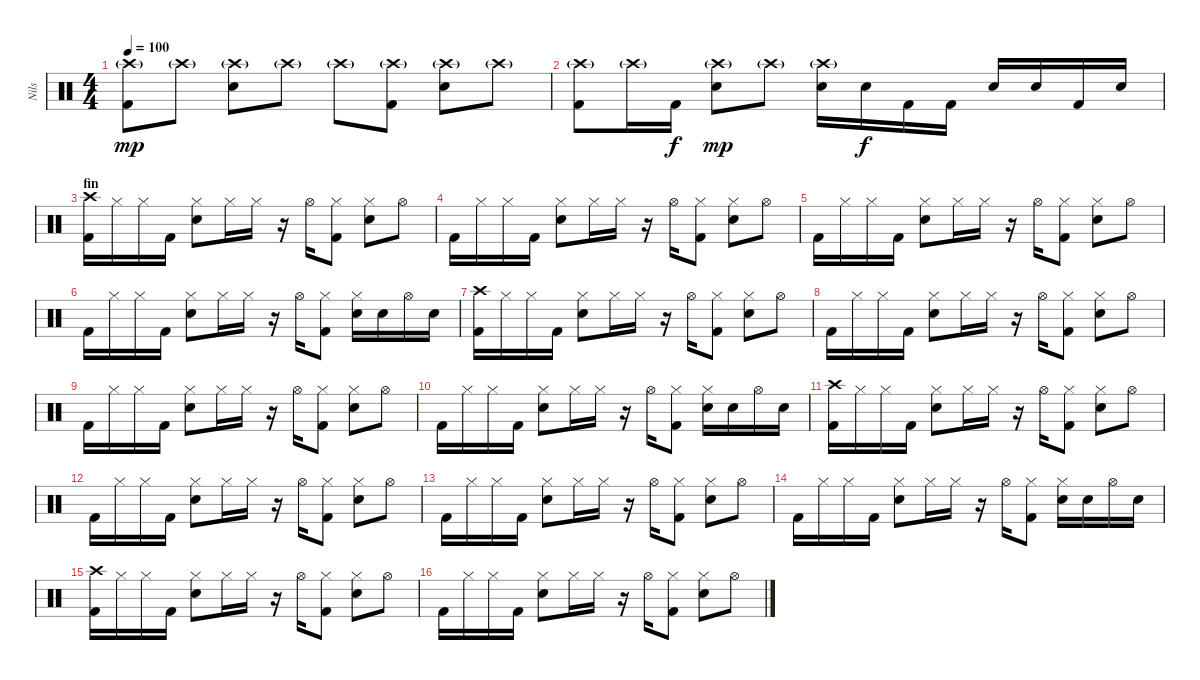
\track ("Nils" "Nils") {instrument percussion}
\staff {score}
\articulation defaults
\ts (4 4)
\tempo 100
\clef neutral
\ks c
("Crash high (hit)"{g} "Kick (hit) 2").8{dy mp} "Crash high (hit)"{g}.8 ("Crash high (hit)"{g} "Snare (hit) 2").8 "Crash high (hit)"{g}.8 "Crash high (hit)"{g}.8 ("Crash high (hit)"{g} "Kick (hit) 2").8 ("Crash high (hit)"{g} "Snare (hit) 2").8 "Crash high (hit)"{g}.8 |
("Crash high (hit)"{g} "Kick (hit) 2").8 "Crash high (hit)"{g}.16 "Kick (hit) 2".16{dy f} ("Crash high (hit)"{g} "Snare (hit) 2").8{dy mp} "Crash high (hit)"{g}.8 ("Crash high (hit)"{g} "Snare (hit) 2").16 "Snare (hit) 2".16{dy f} "Kick (hit) 2".16 "Kick (hit) 2".16 "Snare (hit) 2".16 "Snare (hit) 2".16 "Kick (hit) 2".16 "Snare (hit) 2".16 |
\section ("" "fin")
("Crash high (hit)" "Kick (hit) 2").16 "Hi-Hat (closed)".16 "Hi-Hat (closed)".16 "Kick (hit) 2".16 ("Hi-Hat (closed)" "Snare (hit) 2").8 "Hi-Hat (closed)".16 "Hi-Hat (closed)".16 r.16 "Hi-Hat (open)".16 ("Hi-Hat (closed)" "Kick (hit) 2").8 ("Hi-Hat (closed)" "Snare (hit) 2").8 "Hi-Hat (open)".8 |
"Kick (hit) 2".16 "Hi-Hat (closed)".16 "Hi-Hat (closed)".16 "Kick (hit) 2".16 ("Hi-Hat (closed)" "Snare (hit) 2").8 "Hi-Hat (closed)".16 "Hi-Hat (closed)".16 r.16 "Hi-Hat (open)".16 ("Hi-Hat (closed)" "Kick (hit) 2").8 ("Hi-Hat (closed)" "Snare (hit) 2").8 "Hi-Hat (open)".8 |
"Kick (hit) 2".16 "Hi-Hat (closed)".16 "Hi-Hat (closed)".16 "Kick (hit) 2".16 ("Hi-Hat (closed)" "Snare (hit) 2").8 "Hi-Hat (closed)".16 "Hi-Hat (closed)".16 r.16 "Hi-Hat (open)".16 ("Hi-Hat (closed)" "Kick (hit) 2").8 ("Hi-Hat (closed)" "Snare (hit) 2").8 "Hi-Hat (open)".8 |
"Kick (hit) 2".16 "Hi-Hat (closed)".16 "Hi-Hat (closed)".16 "Kick (hit) 2".16 ("Hi-Hat (closed)" "Snare (hit) 2").8 "Hi-Hat (closed)".16 "Hi-Hat (closed)".16 r.16 "Hi-Hat (open)".16 ("Hi-Hat (closed)" "Kick (hit) 2").8 ("Hi-Hat (closed)" "Snare (hit) 2").16 "Snare (hit) 2".16 "Hi-Hat (open)".16 "Snare (hit) 2".16 |
("Crash high (hit)" "Kick (hit) 2").16 "Hi-Hat (closed)".16 "Hi-Hat (closed)".16 "Kick (hit) 2".16 ("Hi-Hat (closed)" "Snare (hit) 2").8 "Hi-Hat (closed)".16 "Hi-Hat (closed)".16 r.16 "Hi-Hat (open)".16 ("Hi-Hat (closed)" "Kick (hit) 2").8 ("Hi-Hat (closed)" "Snare (hit) 2").8 "Hi-Hat (open)".8 |
"Kick (hit) 2".16 "Hi-Hat (closed)".16 "Hi-Hat (closed)".16 "Kick (hit) 2".16 ("Hi-Hat (closed)" "Snare (hit) 2").8 "Hi-Hat (closed)".16 "Hi-Hat (closed)".16 r.16 "Hi-Hat (open)".16 ("Hi-Hat (closed)" "Kick (hit) 2").8 ("Hi-Hat (closed)" "Snare (hit) 2").8 "Hi-Hat (open)".8 |
"Kick (hit) 2".16 "Hi-Hat (closed)".16 "Hi-Hat (closed)".16 "Kick (hit) 2".16 ("Hi-Hat (closed)" "Snare (hit) 2").8 "Hi-Hat (closed)".16 "Hi-Hat (closed)".16 r.16 "Hi-Hat (open)".16 ("Hi-Hat (closed)" "Kick (hit) 2").8 ("Hi-Hat (closed)" "Snare (hit) 2").8 "Hi-Hat (open)".8 |
"Kick (hit) 2".16 "Hi-Hat (closed)".16 "Hi-Hat (closed)".16 "Kick (hit) 2".16 ("Hi-Hat (closed)" "Snare (hit) 2").8 "Hi-Hat (closed)".16 "Hi-Hat (closed)".16 r.16 "Hi-Hat (open)".16 ("Hi-Hat (closed)" "Kick (hit) 2").8 ("Hi-Hat (closed)" "Snare (hit) 2").16 "Snare (hit) 2".16 "Hi-Hat (open)".16 "Snare (hit) 2".16 |
("Crash high (hit)" "Kick (hit) 2").16 "Hi-Hat (closed)".16 "Hi-Hat (closed)".16 "Kick (hit) 2".16 ("Hi-Hat (closed)" "Snare (hit) 2").8 "Hi-Hat (closed)".16 "Hi-Hat (closed)".16 r.16 "Hi-Hat (open)".16 ("Hi-Hat (closed)" "Kick (hit) 2").8 ("Hi-Hat (closed)" "Snare (hit) 2").8 "Hi-Hat (open)".8 |
"Kick (hit) 2".16 "Hi-Hat (closed)".16 "Hi-Hat (closed)".16 "Kick (hit) 2".16 ("Hi-Hat (closed)" "Snare (hit) 2").8 "Hi-Hat (closed)".16 "Hi-Hat (closed)".16 r.16 "Hi-Hat (open)".16 ("Hi-Hat (closed)" "Kick (hit) 2").8 ("Hi-Hat (closed)" "Snare (hit) 2").8 "Hi-Hat (open)".8 |
"Kick (hit) 2".16 "Hi-Hat (closed)".16 "Hi-Hat (closed)".16 "Kick (hit) 2".16 ("Hi-Hat (closed)" "Snare (hit) 2").8 "Hi-Hat (closed)".16 "Hi-Hat (closed)".16 r.16 "Hi-Hat (open)".16 ("Hi-Hat (closed)" "Kick (hit) 2").8 ("Hi-Hat (closed)" "Snare (hit) 2").8 "Hi-Hat (open)".8 |
"Kick (hit) 2".16 "Hi-Hat (closed)".16 "Hi-Hat (closed)".16 "Kick (hit) 2".16 ("Hi-Hat (closed)" "Snare (hit) 2").8 "Hi-Hat (closed)".16 "Hi-Hat (closed)".16 r.16 "Hi-Hat (open)".16 ("Hi-Hat (closed)" "Kick (hit) 2").8 ("Hi-Hat (closed)" "Snare (hit) 2").16 "Snare (hit) 2".16 "Hi-Hat (open)".16 "Snare (hit) 2".16 |
("Crash high (hit)" "Kick (hit) 2").16 "Hi-Hat (closed)".16 "Hi-Hat (closed)".16 "Kick (hit) 2".16 ("Hi-Hat (closed)" "Snare (hit) 2").8 "Hi-Hat (closed)".16 "Hi-Hat (closed)".16 r.16 "Hi-Hat (open)".16 ("Hi-Hat (closed)" "Kick (hit) 2").8 ("Hi-Hat (closed)" "Snare (hit) 2").8 "Hi-Hat (open)".8 |
"Kick (hit) 2".16 "Hi-Hat (closed)".16 "Hi-Hat (closed)".16 "Kick (hit) 2".16 ("Hi-Hat (closed)" "Snare (hit) 2").8 "Hi-Hat (closed)".16 "Hi-Hat (closed)".16 r.16 "Hi-Hat (open)".16 ("Hi-Hat (closed)" "Kick (hit) 2").8 ("Hi-Hat (closed)" "Snare (hit) 2").8 "Hi-Hat (open)".8
